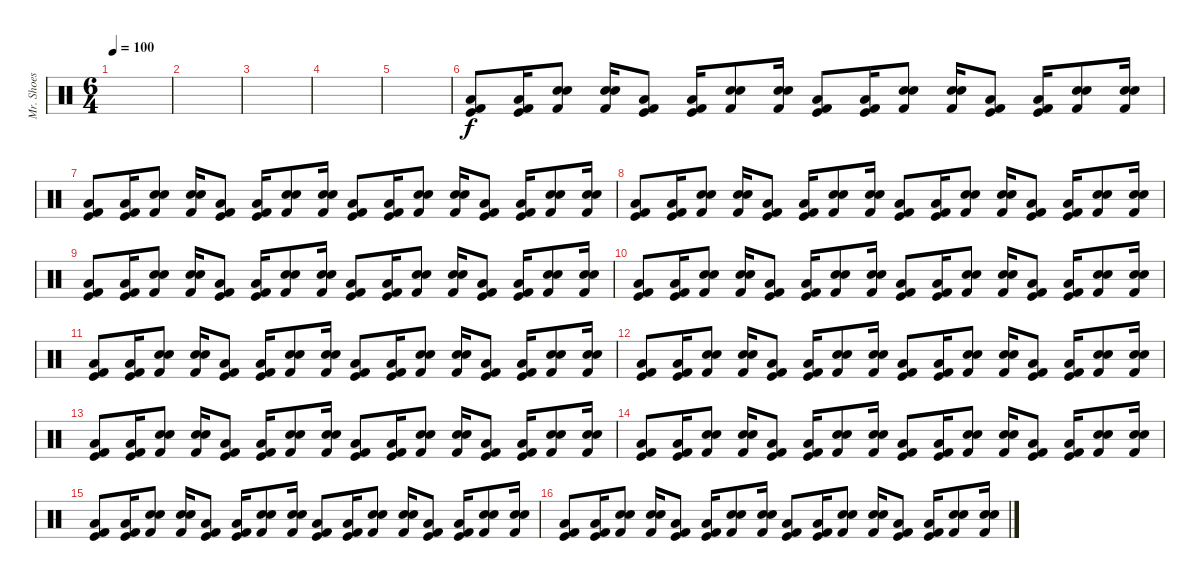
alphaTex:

\track ("Mr. Shoes" "Mr. Shoes") {instrument percussion}
\staff {score}
\articulation defaults
\ts (6 4)
\tempo 100
\clef neutral
\ks c
|
|
|
|
|
("Kick (hit)" "Low Tom (hit)" "Kick (hit) 2").8 ("Kick (hit)" "Low Tom (hit)" "Kick (hit) 2").16 ("Snare (hit) 2" "Kick (hit) 2" "Snare (hit) 2").8 ("Snare (hit) 2" "Kick (hit) 2" "Snare (hit) 2").16 ("Kick (hit)" "Low Tom (hit)" "Kick (hit) 2").8 ("Kick (hit)" "Low Tom (hit)" "Kick (hit) 2").16 ("Snare (hit) 2" "Kick (hit) 2" "Snare (hit) 2").8 ("Snare (hit) 2" "Kick (hit) 2" "Snare (hit) 2").16 ("Kick (hit)" "Low Tom (hit)" "Kick (hit) 2").8 ("Kick (hit)" "Low Tom (hit)" "Kick (hit) 2").16 ("Snare (hit) 2" "Kick (hit) 2" "Snare (hit) 2").8 ("Snare (hit) 2" "Kick (hit) 2" "Snare (hit) 2").16 ("Kick (hit)" "Low Tom (hit)" "Kick (hit) 2").8 ("Kick (hit)" "Low Tom (hit)" "Kick (hit) 2").16 ("Snare (hit) 2" "Kick (hit) 2" "Snare (hit) 2").8 ("Snare (hit) 2" "Kick (hit) 2" "Snare (hit) 2").16 |
("Kick (hit)" "Low Tom (hit)" "Kick (hit) 2").8 ("Kick (hit)" "Low Tom (hit)" "Kick (hit) 2").16 ("Snare (hit) 2" "Kick (hit) 2" "Snare (hit) 2").8 ("Snare (hit) 2" "Kick (hit) 2" "Snare (hit) 2").16 ("Kick (hit)" "Low Tom (hit)" "Kick (hit) 2").8 ("Kick (hit)" "Low Tom (hit)" "Kick (hit) 2").16 ("Snare (hit) 2" "Kick (hit) 2" "Snare (hit) 2").8 ("Snare (hit) 2" "Kick (hit) 2" "Snare (hit) 2").16 ("Kick (hit)" "Low Tom (hit)" "Kick (hit) 2").8 ("Kick (hit)" "Low Tom (hit)" "Kick (hit) 2").16 ("Snare (hit) 2" "Kick (hit) 2" "Snare (hit) 2").8 ("Snare (hit) 2" "Kick (hit) 2" "Snare (hit) 2").16 ("Kick (hit)" "Low Tom (hit)" "Kick (hit) 2").8 ("Kick (hit)" "Low Tom (hit)" "Kick (hit) 2").16 ("Snare (hit) 2" "Kick (hit) 2" "Snare (hit) 2").8 ("Snare (hit) 2" "Kick (hit) 2" "Snare (hit) 2").16 |
("Kick (hit)" "Low Tom (hit)" "Kick (hit) 2").8 ("Kick (hit)" "Low Tom (hit)" "Kick (hit) 2").16 ("Snare (hit) 2" "Kick (hit) 2" "Snare (hit) 2").8 ("Snare (hit) 2" "Kick (hit) 2" "Snare (hit) 2").16 ("Kick (hit)" "Low Tom (hit)" "Kick (hit) 2").8 ("Kick (hit)" "Low Tom (hit)" "Kick (hit) 2").16 ("Snare (hit) 2" "Kick (hit) 2" "Snare (hit) 2").8 ("Snare (hit) 2" "Kick (hit) 2" "Snare (hit) 2").16 ("Kick (hit)" "Low Tom (hit)" "Kick (hit) 2").8 ("Kick (hit)" "Low Tom (hit)" "Kick (hit) 2").16 ("Snare (hit) 2" "Kick (hit) 2" "Snare (hit) 2").8 ("Snare (hit) 2" "Kick (hit) 2" "Snare (hit) 2").16 ("Kick (hit)" "Low Tom (hit)" "Kick (hit) 2").8 ("Kick (hit)" "Low Tom (hit)" "Kick (hit) 2").16 ("Snare (hit) 2" "Kick (hit) 2" "Snare (hit) 2").8 ("Snare (hit) 2" "Kick (hit) 2" "Snare (hit) 2").16 |
("Kick (hit)" "Low Tom (hit)" "Kick (hit) 2").8 ("Kick (hit)" "Low Tom (hit)" "Kick (hit) 2").16 ("Snare (hit) 2" "Kick (hit) 2" "Snare (hit) 2").8 ("Snare (hit) 2" "Kick (hit) 2" "Snare (hit) 2").16 ("Kick (hit)" "Low Tom (hit)" "Kick (hit) 2").8 ("Kick (hit)" "Low Tom (hit)" "Kick (hit) 2").16 ("Snare (hit) 2" "Kick (hit) 2" "Snare (hit) 2").8 ("Snare (hit) 2" "Kick (hit) 2" "Snare (hit) 2").16 ("Kick (hit)" "Low Tom (hit)" "Kick (hit) 2").8 ("Kick (hit)" "Low Tom (hit)" "Kick (hit) 2").16 ("Snare (hit) 2" "Kick (hit) 2" "Snare (hit) 2").8 ("Snare (hit) 2" "Kick (hit) 2" "Snare (hit) 2").16 ("Kick (hit)" "Low Tom (hit)" "Kick (hit) 2").8 ("Kick (hit)" "Low Tom (hit)" "Kick (hit) 2").16 ("Snare (hit) 2" "Kick (hit) 2" "Snare (hit) 2").8 ("Snare (hit) 2" "Kick (hit) 2" "Snare (hit) 2").16 |
("Kick (hit)" "Low Tom (hit)" "Kick (hit) 2").8 ("Kick (hit)" "Low Tom (hit)" "Kick (hit) 2").16 ("Snare (hit) 2" "Kick (hit) 2" "Snare (hit) 2").8 ("Snare (hit) 2" "Kick (hit) 2" "Snare (hit) 2").16 ("Kick (hit)" "Low Tom (hit)" "Kick (hit) 2").8 ("Kick (hit)" "Low Tom (hit)" "Kick (hit) 2").16 ("Snare (hit) 2" "Kick (hit) 2" "Snare (hit) 2").8 ("Snare (hit) 2" "Kick (hit) 2" "Snare (hit) 2").16 ("Kick (hit)" "Low Tom (hit)" "Kick (hit) 2").8 ("Kick (hit)" "Low Tom (hit)" "Kick (hit) 2").16 ("Snare (hit) 2" "Kick (hit) 2" "Snare (hit) 2").8 ("Snare (hit) 2" "Kick (hit) 2" "Snare (hit) 2").16 ("Kick (hit)" "Low Tom (hit)" "Kick (hit) 2").8 ("Kick (hit)" "Low Tom (hit)" "Kick (hit) 2").16 ("Snare (hit) 2" "Kick (hit) 2" "Snare (hit) 2").8 ("Snare (hit) 2" "Kick (hit) 2" "Snare (hit) 2").16 |
("Kick (hit)" "Low Tom (hit)" "Kick (hit) 2").8 ("Kick (hit)" "Low Tom (hit)" "Kick (hit) 2").16 ("Snare (hit) 2" "Kick (hit) 2" "Snare (hit) 2").8 ("Snare (hit) 2" "Kick (hit) 2" "Snare (hit) 2").16 ("Kick (hit)" "Low Tom (hit)" "Kick (hit) 2").8 ("Kick (hit)" "Low Tom (hit)" "Kick (hit) 2").16 ("Snare (hit) 2" "Kick (hit) 2" "Snare (hit) 2").8 ("Snare (hit) 2" "Kick (hit) 2" "Snare (hit) 2").16 ("Kick (hit)" "Low Tom (hit)" "Kick (hit) 2").8 ("Kick (hit)" "Low Tom (hit)" "Kick (hit) 2").16 ("Snare (hit) 2" "Kick (hit) 2" "Snare (hit) 2").8 ("Snare (hit) 2" "Kick (hit) 2" "Snare (hit) 2").16 ("Kick (hit)" "Low Tom (hit)" "Kick (hit) 2").8 ("Kick (hit)" "Low Tom (hit)" "Kick (hit) 2").16 ("Snare (hit) 2" "Kick (hit) 2" "Snare (hit) 2").8 ("Snare (hit) 2" "Kick (hit) 2" "Snare (hit) 2").16 |
("Kick (hit)" "Low Tom (hit)" "Kick (hit) 2").8 ("Kick (hit)" "Low Tom (hit)" "Kick (hit) 2").16 ("Snare (hit) 2" "Kick (hit) 2" "Snare (hit) 2").8 ("Snare (hit) 2" "Kick (hit) 2" "Snare (hit) 2").16 ("Kick (hit)" "Low Tom (hit)" "Kick (hit) 2").8 ("Kick (hit)" "Low Tom (hit)" "Kick (hit) 2").16 ("Snare (hit) 2" "Kick (hit) 2" "Snare (hit) 2").8 ("Snare (hit) 2" "Kick (hit) 2" "Snare (hit) 2").16 ("Kick (hit)" "Low Tom (hit)" "Kick (hit) 2").8 ("Kick (hit)" "Low Tom (hit)" "Kick (hit) 2").16 ("Snare (hit) 2" "Kick (hit) 2" "Snare (hit) 2").8 ("Snare (hit) 2" "Kick (hit) 2" "Snare (hit) 2").16 ("Kick (hit)" "Low Tom (hit)" "Kick (hit) 2").8 ("Kick (hit)" "Low Tom (hit)" "Kick (hit) 2").16 ("Snare (hit) 2" "Kick (hit) 2" "Snare (hit) 2").8 ("Snare (hit) 2" "Kick (hit) 2" "Snare (hit) 2").16 |
("Kick (hit)" "Low Tom (hit)" "Kick (hit) 2").8 ("Kick (hit)" "Low Tom (hit)" "Kick (hit) 2").16 ("Snare (hit) 2" "Kick (hit) 2" "Snare (hit) 2").8 ("Snare (hit) 2" "Kick (hit) 2" "Snare (hit) 2").16 ("Kick (hit)" "Low Tom (hit)" "Kick (hit) 2").8 ("Kick (hit)" "Low Tom (hit)" "Kick (hit) 2").16 ("Snare (hit) 2" "Kick (hit) 2" "Snare (hit) 2").8 ("Snare (hit) 2" "Kick (hit) 2" "Snare (hit) 2").16 ("Kick (hit)" "Low Tom (hit)" "Kick (hit) 2").8 ("Kick (hit)" "Low Tom (hit)" "Kick (hit) 2").16 ("Snare (hit) 2" "Kick (hit) 2" "Snare (hit) 2").8 ("Snare (hit) 2" "Kick (hit) 2" "Snare (hit) 2").16 ("Kick (hit)" "Low Tom (hit)" "Kick (hit) 2").8 ("Kick (hit)" "Low Tom (hit)" "Kick (hit) 2").16 ("Snare (hit) 2" "Kick (hit) 2" "Snare (hit) 2").8 ("Snare (hit) 2" "Kick (hit) 2" "Snare (hit) 2").16 |
("Kick (hit)" "Low Tom (hit)" "Kick (hit) 2").8 ("Kick (hit)" "Low Tom (hit)" "Kick (hit) 2").16 ("Snare (hit) 2" "Kick (hit) 2" "Snare (hit) 2").8 ("Snare (hit) 2" "Kick (hit) 2" "Snare (hit) 2").16 ("Kick (hit)" "Low Tom (hit)" "Kick (hit) 2").8 ("Kick (hit)" "Low Tom (hit)" "Kick (hit) 2").16 ("Snare (hit) 2" "Kick (hit) 2" "Snare (hit) 2").8 ("Snare (hit) 2" "Kick (hit) 2" "Snare (hit) 2").16 ("Kick (hit)" "Low Tom (hit)" "Kick (hit) 2").8 ("Kick (hit)" "Low Tom (hit)" "Kick (hit) 2").16 ("Snare (hit) 2" "Kick (hit) 2" "Snare (hit) 2").8 ("Snare (hit) 2" "Kick (hit) 2" "Snare (hit) 2").16 ("Kick (hit)" "Low Tom (hit)" "Kick (hit) 2").8 ("Kick (hit)" "Low Tom (hit)" "Kick (hit) 2").16 ("Snare (hit) 2" "Kick (hit) 2" "Snare (hit) 2").8 ("Snare (hit) 2" "Kick (hit) 2" "Snare (hit) 2").16 |
("Kick (hit)" "Low Tom (hit)" "Kick (hit) 2").8 ("Kick (hit)" "Low Tom (hit)" "Kick (hit) 2").16 ("Snare (hit) 2" "Kick (hit) 2" "Snare (hit) 2").8 ("Snare (hit) 2" "Kick (hit) 2" "Snare (hit) 2").16 ("Kick (hit)" "Low Tom (hit)" "Kick (hit) 2").8 ("Kick (hit)" "Low Tom (hit)" "Kick (hit) 2").16 ("Snare (hit) 2" "Kick (hit) 2" "Snare (hit) 2").8 ("Snare (hit) 2" "Kick (hit) 2" "Snare (hit) 2").16 ("Kick (hit)" "Low Tom (hit)" "Kick (hit) 2").8 ("Kick (hit)" "Low Tom (hit)" "Kick (hit) 2").16 ("Snare (hit) 2" "Kick (hit) 2" "Snare (hit) 2").8 ("Snare (hit) 2" "Kick (hit) 2" "Snare (hit) 2").16 ("Kick (hit)" "Low Tom (hit)" "Kick (hit) 2").8 ("Kick (hit)" "Low Tom (hit)" "Kick (hit) 2").16 ("Snare (hit) 2" "Kick (hit) 2" "Snare (hit) 2").8 ("Snare (hit) 2" "Kick (hit) 2" "Snare (hit) 2").16 |
("Kick (hit)" "Low Tom (hit)" "Kick (hit) 2").8 ("Kick (hit)" "Low Tom (hit)" "Kick (hit) 2").16 ("Snare (hit) 2" "Kick (hit) 2" "Snare (hit) 2").8 ("Snare (hit) 2" "Kick (hit) 2" "Snare (hit) 2").16 ("Kick (hit)" "Low Tom (hit)" "Kick (hit) 2").8 ("Kick (hit)" "Low Tom (hit)" "Kick (hit) 2").16 ("Snare (hit) 2" "Kick (hit) 2" "Snare (hit) 2").8 ("Snare (hit) 2" "Kick (hit) 2" "Snare (hit) 2").16 ("Kick (hit)" "Low Tom (hit)" "Kick (hit) 2").8 ("Kick (hit)" "Low Tom (hit)" "Kick (hit) 2").16 ("Snare (hit) 2" "Kick (hit) 2" "Snare (hit) 2").8 ("Snare (hit) 2" "Kick (hit) 2" "Snare (hit) 2").16 ("Kick (hit)" "Low Tom (hit)" "Kick (hit) 2").8 ("Kick (hit)" "Low Tom (hit)" "Kick (hit) 2").16 ("Snare (hit) 2" "Kick (hit) 2" "Snare (hit) 2").8 ("Snare (hit) 2" "Kick (hit) 2" "Snare (hit) 2").16
